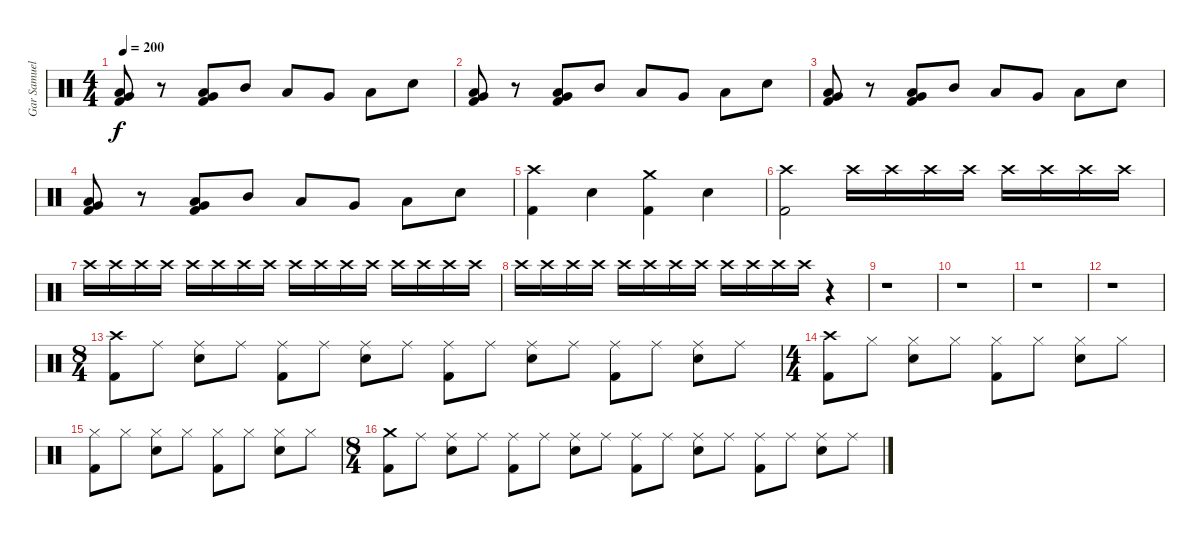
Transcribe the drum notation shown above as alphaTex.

\track ("Gar Samuelson" "Gar Samuel") {instrument percussion}
\staff {score}
\articulation defaults
\ts (4 4)
\tempo 200
\clef neutral
\ks c
("Very Low Tom (hit)" "Low Floor Tom (hit)" "Kick (hit) 2").8{dy f} r.8 ("Very Low Tom (hit)" "Low Floor Tom (hit)" "Kick (hit) 2").8 "Mid Tom (hit)".8 "Low Tom (hit)".8 "Very Low Tom (hit)".8 "Low Floor Tom (hit)".8 "Snare (hit) 2".8 |
("Very Low Tom (hit)" "Low Floor Tom (hit)" "Kick (hit) 2").8 r.8 ("Very Low Tom (hit)" "Low Floor Tom (hit)" "Kick (hit) 2").8 "Mid Tom (hit)".8 "Low Tom (hit)".8 "Very Low Tom (hit)".8 "Low Floor Tom (hit)".8 "Snare (hit) 2".8 |
("Very Low Tom (hit)" "Low Floor Tom (hit)" "Kick (hit) 2").8 r.8 ("Very Low Tom (hit)" "Low Floor Tom (hit)" "Kick (hit) 2").8 "Mid Tom (hit)".8 "Low Tom (hit)".8 "Very Low Tom (hit)".8 "Low Floor Tom (hit)".8 "Snare (hit) 2".8 |
("Very Low Tom (hit)" "Low Floor Tom (hit)" "Kick (hit) 2").8 r.8 ("Very Low Tom (hit)" "Low Floor Tom (hit)" "Kick (hit) 2").8 "Mid Tom (hit)".8 "Low Tom (hit)".8 "Very Low Tom (hit)".8 "Low Floor Tom (hit)".8 "Snare (hit) 2".8 |
("Crash high (hit)" "Kick (hit) 2").4 "Snare (hit) 2".4 ("Crash medium (hit)" "Kick (hit) 2").4 "Snare (hit) 2".4 |
("Crash high (hit)" "Kick (hit) 2").2 "Crash high (hit)".16 "Crash high (hit)".16 "Crash high (hit)".16 "Crash high (hit)".16 "Crash high (hit)".16 "Crash high (hit)".16 "Crash high (hit)".16 "Crash high (hit)".16 |
"Crash high (hit)".16 "Crash high (hit)".16 "Crash high (hit)".16 "Crash high (hit)".16 "Crash high (hit)".16 "Crash high (hit)".16 "Crash high (hit)".16 "Crash high (hit)".16 "Crash high (hit)".16 "Crash high (hit)".16 "Crash high (hit)".16 "Crash high (hit)".16 "Crash high (hit)".16 "Crash high (hit)".16 "Crash high (hit)".16 "Crash high (hit)".16 |
"Crash high (hit)".16 "Crash high (hit)".16 "Crash high (hit)".16 "Crash high (hit)".16 "Crash high (hit)".16 "Crash high (hit)".16 "Crash high (hit)".16 "Crash high (hit)".16 "Crash high (hit)".16 "Crash high (hit)".16 "Crash high (hit)".16 "Crash high (hit)".16 r.4 |
r.1 |
r.1 |
r.1 |
r.1 |
\ts (8 4)
("Crash high (hit)" "Kick (hit) 2").8 "Ride (middle)".8 ("Ride (middle)" "Snare (hit) 2").8 "Ride (middle)".8 ("Ride (middle)" "Kick (hit) 2").8 "Ride (middle)".8 ("Ride (middle)" "Snare (hit) 2").8 "Ride (middle)".8 ("Ride (middle)" "Kick (hit) 2").8 "Ride (middle)".8 ("Ride (middle)" "Snare (hit) 2").8 "Ride (middle)".8 ("Ride (middle)" "Kick (hit) 2").8 "Ride (middle)".8 ("Ride (middle)" "Snare (hit) 2").8 "Ride (middle)".8 |
\ts (4 4)
("Crash high (hit)" "Kick (hit) 2").8 "Hi-Hat (closed)".8 ("Hi-Hat (closed)" "Snare (hit) 2").8 "Hi-Hat (closed)".8 ("Hi-Hat (closed)" "Kick (hit) 2").8 "Hi-Hat (closed)".8 ("Hi-Hat (closed)" "Snare (hit) 2").8 "Hi-Hat (closed)".8 |
("Hi-Hat (closed)" "Kick (hit) 2").8 "Hi-Hat (closed)".8 ("Hi-Hat (closed)" "Snare (hit) 2").8 "Hi-Hat (closed)".8 ("Hi-Hat (closed)" "Kick (hit) 2").8 "Hi-Hat (closed)".8 ("Hi-Hat (closed)" "Snare (hit) 2").8 "Hi-Hat (closed)".8 |
\ts (8 4)
("Crash medium (hit)" "Kick (hit) 2").8 "Ride (middle)".8 ("Ride (middle)" "Snare (hit) 2").8 "Ride (middle)".8 ("Ride (middle)" "Kick (hit) 2").8 "Ride (middle)".8 ("Ride (middle)" "Snare (hit) 2").8 "Ride (middle)".8 ("Ride (middle)" "Kick (hit) 2").8 "Ride (middle)".8 ("Ride (middle)" "Snare (hit) 2").8 "Ride (middle)".8 ("Ride (middle)" "Kick (hit) 2").8 "Ride (middle)".8 ("Ride (middle)" "Snare (hit) 2").8 "Ride (middle)".8
